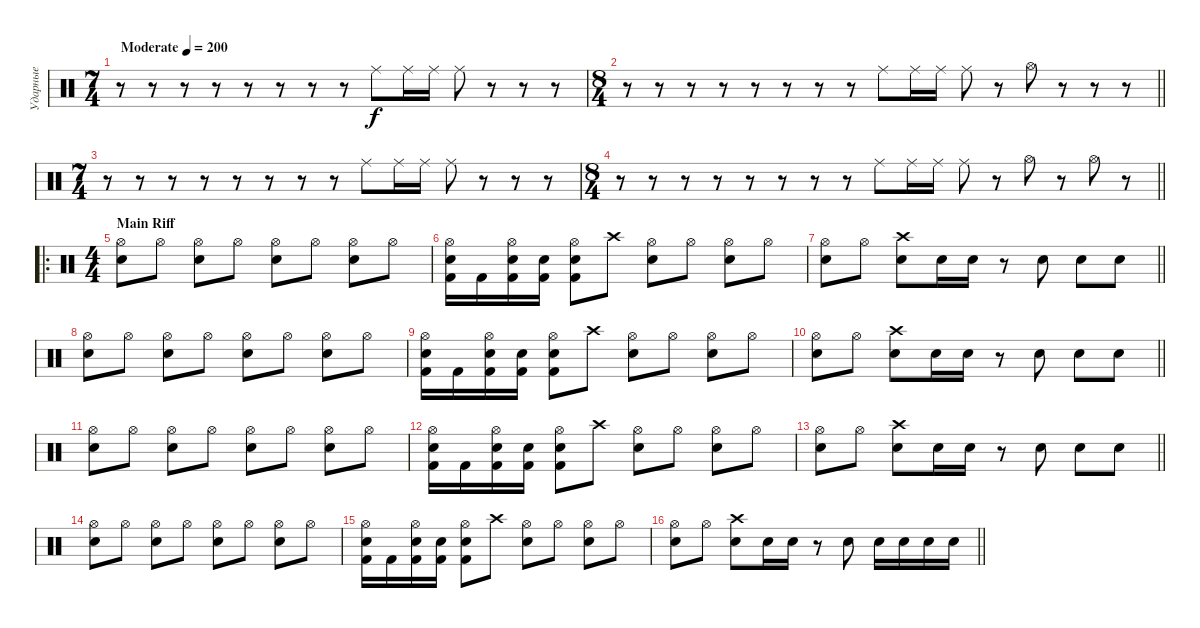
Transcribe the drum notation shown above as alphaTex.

\track ("Ударные" "Ударные") {instrument percussion}
\staff {score}
\articulation defaults
\ts (7 4)
\tempo (200 "Moderate")
\clef neutral
\ks c
r.8{dy f} r.8 r.8 r.8 r.8 r.8 r.8 r.8 "Ride (middle)".8 "Ride (middle)".16 "Ride (middle)".16 "Ride (middle)".8 r.8 r.8 r.8 |
\ts (8 4)
\barLineRight lightlight
r.8 r.8 r.8 r.8 r.8 r.8 r.8 r.8 "Ride (middle)".8 "Ride (middle)".16 "Ride (middle)".16 "Ride (middle)".8 r.8 "Hi-Hat (open)".8 r.8 r.8 r.8 |
\ts (7 4)
r.8 r.8 r.8 r.8 r.8 r.8 r.8 r.8 "Ride (middle)".8 "Ride (middle)".16 "Ride (middle)".16 "Ride (middle)".8 r.8 r.8 r.8 |
\ts (8 4)
\barLineRight lightlight
r.8 r.8 r.8 r.8 r.8 r.8 r.8 r.8 "Ride (middle)".8 "Ride (middle)".16 "Ride (middle)".16 "Ride (middle)".8 r.8 "Hi-Hat (open)".8 r.8 "Hi-Hat (open)".8 r.8 |
\ro
\ts (4 4)
\section ("" "Main Riff")
("Hi-Hat (open)" "Snare (hit) 2").8 "Hi-Hat (open)".8 ("Hi-Hat (open)" "Snare (hit) 2").8 "Hi-Hat (open)".8 ("Hi-Hat (open)" "Snare (hit) 2").8 "Hi-Hat (open)".8 ("Hi-Hat (open)" "Snare (hit) 2").8 "Hi-Hat (open)".8 |
("Hi-Hat (open)" "Snare (hit) 2" "Kick (hit) 2").16 "Kick (hit) 2".16 ("Hi-Hat (open)" "Snare (hit) 2" "Kick (hit) 2").16 ("Snare (hit) 2" "Kick (hit) 2").16 ("Hi-Hat (open)" "Snare (hit) 2" "Kick (hit) 2").8 "Crash high (hit)".8 ("Hi-Hat (open)" "Snare (hit) 2").8 "Hi-Hat (open)".8 ("Hi-Hat (open)" "Snare (hit) 2").8 "Hi-Hat (open)".8 |
\barLineRight lightlight
("Hi-Hat (open)" "Snare (hit) 2").8 "Hi-Hat (open)".8 ("Crash high (hit)" "Snare (hit) 2").8 "Snare (hit) 2".16 "Snare (hit) 2".16 r.8 "Snare (hit) 2".8 "Snare (hit) 2".8 "Snare (hit) 2".8 |
("Hi-Hat (open)" "Snare (hit) 2").8 "Hi-Hat (open)".8 ("Hi-Hat (open)" "Snare (hit) 2").8 "Hi-Hat (open)".8 ("Hi-Hat (open)" "Snare (hit) 2").8 "Hi-Hat (open)".8 ("Hi-Hat (open)" "Snare (hit) 2").8 "Hi-Hat (open)".8 |
("Hi-Hat (open)" "Snare (hit) 2" "Kick (hit) 2").16 "Kick (hit) 2".16 ("Hi-Hat (open)" "Snare (hit) 2" "Kick (hit) 2").16 ("Snare (hit) 2" "Kick (hit) 2").16 ("Hi-Hat (open)" "Snare (hit) 2" "Kick (hit) 2").8 "Crash high (hit)".8 ("Hi-Hat (open)" "Snare (hit) 2").8 "Hi-Hat (open)".8 ("Hi-Hat (open)" "Snare (hit) 2").8 "Hi-Hat (open)".8 |
\barLineRight lightlight
("Hi-Hat (open)" "Snare (hit) 2").8 "Hi-Hat (open)".8 ("Crash high (hit)" "Snare (hit) 2").8 "Snare (hit) 2".16 "Snare (hit) 2".16 r.8 "Snare (hit) 2".8 "Snare (hit) 2".8 "Snare (hit) 2".8 |
("Hi-Hat (open)" "Snare (hit) 2").8 "Hi-Hat (open)".8 ("Hi-Hat (open)" "Snare (hit) 2").8 "Hi-Hat (open)".8 ("Hi-Hat (open)" "Snare (hit) 2").8 "Hi-Hat (open)".8 ("Hi-Hat (open)" "Snare (hit) 2").8 "Hi-Hat (open)".8 |
("Hi-Hat (open)" "Snare (hit) 2" "Kick (hit) 2").16 "Kick (hit) 2".16 ("Hi-Hat (open)" "Snare (hit) 2" "Kick (hit) 2").16 ("Snare (hit) 2" "Kick (hit) 2").16 ("Hi-Hat (open)" "Snare (hit) 2" "Kick (hit) 2").8 "Crash high (hit)".8 ("Hi-Hat (open)" "Snare (hit) 2").8 "Hi-Hat (open)".8 ("Hi-Hat (open)" "Snare (hit) 2").8 "Hi-Hat (open)".8 |
\barLineRight lightlight
("Hi-Hat (open)" "Snare (hit) 2").8 "Hi-Hat (open)".8 ("Crash high (hit)" "Snare (hit) 2").8 "Snare (hit) 2".16 "Snare (hit) 2".16 r.8 "Snare (hit) 2".8 "Snare (hit) 2".8 "Snare (hit) 2".8 |
("Hi-Hat (open)" "Snare (hit) 2").8 "Hi-Hat (open)".8 ("Hi-Hat (open)" "Snare (hit) 2").8 "Hi-Hat (open)".8 ("Hi-Hat (open)" "Snare (hit) 2").8 "Hi-Hat (open)".8 ("Hi-Hat (open)" "Snare (hit) 2").8 "Hi-Hat (open)".8 |
("Hi-Hat (open)" "Snare (hit) 2" "Kick (hit) 2").16 "Kick (hit) 2".16 ("Hi-Hat (open)" "Snare (hit) 2" "Kick (hit) 2").16 ("Snare (hit) 2" "Kick (hit) 2").16 ("Hi-Hat (open)" "Snare (hit) 2" "Kick (hit) 2").8 "Crash high (hit)".8 ("Hi-Hat (open)" "Snare (hit) 2").8 "Hi-Hat (open)".8 ("Hi-Hat (open)" "Snare (hit) 2").8 "Hi-Hat (open)".8 |
\barLineRight lightlight
("Hi-Hat (open)" "Snare (hit) 2").8 "Hi-Hat (open)".8 ("Crash high (hit)" "Snare (hit) 2").8 "Snare (hit) 2".16 "Snare (hit) 2".16 r.8 "Snare (hit) 2".8 "Snare (hit) 2".16 "Snare (hit) 2".16 "Snare (hit) 2".16 "Snare (hit) 2".16
